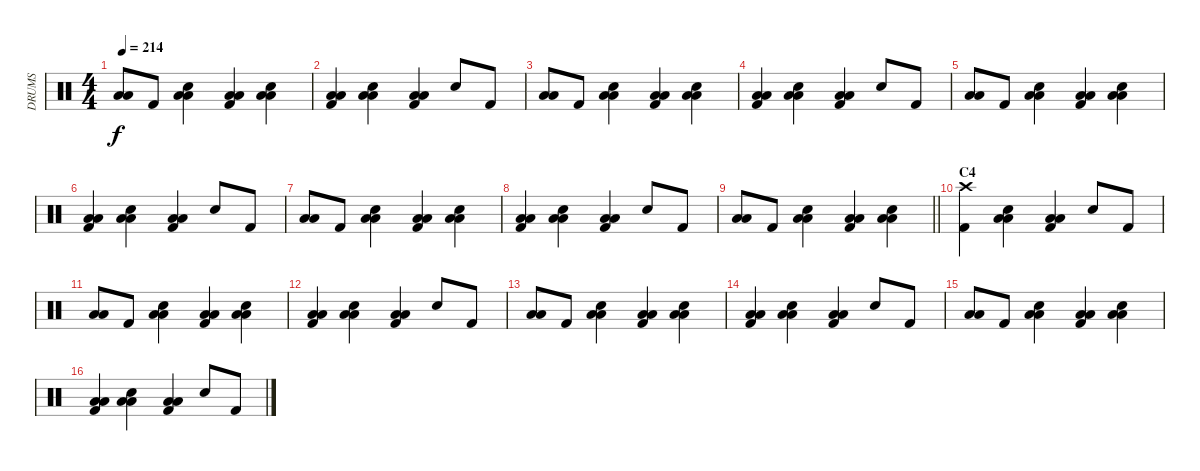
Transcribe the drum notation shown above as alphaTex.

\track ("DRUMS" "DRUMS") {instrument percussion}
\staff {score}
\articulation defaults
\ts (4 4)
\tempo 214
\clef neutral
\ks c
("Low Tom (hit)" "Low Tom (hit)").8{dy f} "Kick (hit) 2".8 ("Low Tom (hit)" "Snare (hit) 2" "Low Tom (hit)").4 ("Low Tom (hit)" "Kick (hit) 2" "Low Tom (hit)").4 ("Low Tom (hit)" "Snare (hit) 2" "Low Tom (hit)").4 |
("Low Tom (hit)" "Kick (hit) 2" "Low Tom (hit)").4 ("Low Tom (hit)" "Snare (hit) 2" "Low Tom (hit)").4 ("Low Tom (hit)" "Kick (hit) 2" "Low Tom (hit)").4 "Snare (hit) 2".8 "Kick (hit) 2".8 |
("Low Tom (hit)" "Low Tom (hit)").8 "Kick (hit) 2".8 ("Low Tom (hit)" "Snare (hit) 2" "Low Tom (hit)").4 ("Low Tom (hit)" "Kick (hit) 2" "Low Tom (hit)").4 ("Low Tom (hit)" "Snare (hit) 2" "Low Tom (hit)").4 |
("Low Tom (hit)" "Kick (hit) 2" "Low Tom (hit)").4 ("Low Tom (hit)" "Snare (hit) 2" "Low Tom (hit)").4 ("Low Tom (hit)" "Kick (hit) 2" "Low Tom (hit)").4 "Snare (hit) 2".8 "Kick (hit) 2".8 |
("Low Tom (hit)" "Low Tom (hit)").8 "Kick (hit) 2".8 ("Low Tom (hit)" "Snare (hit) 2" "Low Tom (hit)").4 ("Low Tom (hit)" "Kick (hit) 2" "Low Tom (hit)").4 ("Low Tom (hit)" "Snare (hit) 2" "Low Tom (hit)").4 |
("Low Tom (hit)" "Kick (hit) 2" "Low Tom (hit)").4 ("Low Tom (hit)" "Snare (hit) 2" "Low Tom (hit)").4 ("Low Tom (hit)" "Kick (hit) 2" "Low Tom (hit)").4 "Snare (hit) 2".8 "Kick (hit) 2".8 |
("Low Tom (hit)" "Low Tom (hit)").8 "Kick (hit) 2".8 ("Low Tom (hit)" "Snare (hit) 2" "Low Tom (hit)").4 ("Low Tom (hit)" "Kick (hit) 2" "Low Tom (hit)").4 ("Low Tom (hit)" "Snare (hit) 2" "Low Tom (hit)").4 |
("Low Tom (hit)" "Kick (hit) 2" "Low Tom (hit)").4 ("Low Tom (hit)" "Snare (hit) 2" "Low Tom (hit)").4 ("Low Tom (hit)" "Kick (hit) 2" "Low Tom (hit)").4 "Snare (hit) 2".8 "Kick (hit) 2".8 |
\barLineRight lightlight
("Low Tom (hit)" "Low Tom (hit)").8 "Kick (hit) 2".8 ("Low Tom (hit)" "Snare (hit) 2" "Low Tom (hit)").4 ("Low Tom (hit)" "Kick (hit) 2" "Low Tom (hit)").4 ("Low Tom (hit)" "Snare (hit) 2" "Low Tom (hit)").4 |
\section ("" "C4")
("Crash high (hit)" "Kick (hit) 2").4 ("Snare (hit) 2" "Low Tom (hit)" "Low Tom (hit)").4 ("Kick (hit) 2" "Low Tom (hit)" "Low Tom (hit)").4 "Snare (hit) 2".8 "Kick (hit) 2".8 |
("Low Tom (hit)" "Low Tom (hit)").8 "Kick (hit) 2".8 ("Low Tom (hit)" "Snare (hit) 2" "Low Tom (hit)").4 ("Low Tom (hit)" "Kick (hit) 2" "Low Tom (hit)").4 ("Low Tom (hit)" "Snare (hit) 2" "Low Tom (hit)").4 |
("Low Tom (hit)" "Kick (hit) 2" "Low Tom (hit)").4 ("Low Tom (hit)" "Snare (hit) 2" "Low Tom (hit)").4 ("Low Tom (hit)" "Kick (hit) 2" "Low Tom (hit)").4 "Snare (hit) 2".8 "Kick (hit) 2".8 |
("Low Tom (hit)" "Low Tom (hit)").8 "Kick (hit) 2".8 ("Low Tom (hit)" "Snare (hit) 2" "Low Tom (hit)").4 ("Low Tom (hit)" "Kick (hit) 2" "Low Tom (hit)").4 ("Low Tom (hit)" "Snare (hit) 2" "Low Tom (hit)").4 |
("Low Tom (hit)" "Kick (hit) 2" "Low Tom (hit)").4 ("Low Tom (hit)" "Snare (hit) 2" "Low Tom (hit)").4 ("Low Tom (hit)" "Kick (hit) 2" "Low Tom (hit)").4 "Snare (hit) 2".8 "Kick (hit) 2".8 |
("Low Tom (hit)" "Low Tom (hit)").8 "Kick (hit) 2".8 ("Low Tom (hit)" "Snare (hit) 2" "Low Tom (hit)").4 ("Low Tom (hit)" "Kick (hit) 2" "Low Tom (hit)").4 ("Low Tom (hit)" "Snare (hit) 2" "Low Tom (hit)").4 |
("Low Tom (hit)" "Kick (hit) 2" "Low Tom (hit)").4 ("Low Tom (hit)" "Snare (hit) 2" "Low Tom (hit)").4 ("Low Tom (hit)" "Kick (hit) 2" "Low Tom (hit)").4 "Snare (hit) 2".8 "Kick (hit) 2".8
